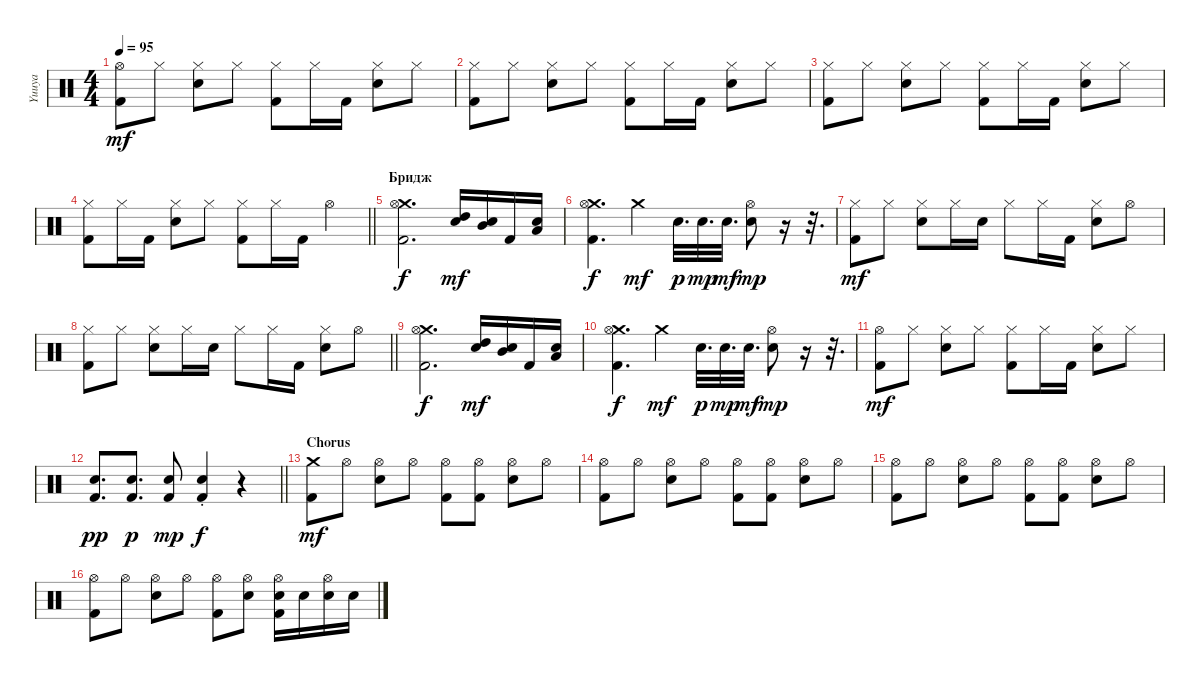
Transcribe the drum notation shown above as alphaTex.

\track ("Yuuya" "Yuuya") {instrument percussion}
\staff {score}
\articulation defaults
\ts (4 4)
\tempo 95
\clef neutral
\ks c
("Hi-Hat (open)" "Kick (hit) 2").8{dy mf} "Hi-Hat (closed)".8 ("Hi-Hat (closed)" "Snare (hit) 2").8 "Hi-Hat (closed)".8 ("Hi-Hat (closed)" "Kick (hit) 2").8 "Hi-Hat (closed)".16 "Kick (hit) 2".16 ("Hi-Hat (closed)" "Snare (hit) 2").8 "Hi-Hat (closed)".8 |
("Hi-Hat (closed)" "Kick (hit) 2").8 "Hi-Hat (closed)".8 ("Hi-Hat (closed)" "Snare (hit) 2").8 "Hi-Hat (closed)".8 ("Hi-Hat (closed)" "Kick (hit) 2").8 "Hi-Hat (closed)".16 "Kick (hit) 2".16 ("Hi-Hat (closed)" "Snare (hit) 2").8 "Hi-Hat (closed)".8 |
("Hi-Hat (closed)" "Kick (hit) 2").8 "Hi-Hat (closed)".8 ("Hi-Hat (closed)" "Snare (hit) 2").8 "Hi-Hat (closed)".8 ("Hi-Hat (closed)" "Kick (hit) 2").8 "Hi-Hat (closed)".16 "Kick (hit) 2".16 ("Hi-Hat (closed)" "Snare (hit) 2").8 "Hi-Hat (closed)".8 |
\barLineRight lightlight
("Hi-Hat (closed)" "Kick (hit) 2").8 "Hi-Hat (closed)".16 "Kick (hit) 2".16 ("Hi-Hat (closed)" "Snare (hit) 2").8 "Hi-Hat (closed)".8 ("Hi-Hat (closed)" "Kick (hit) 2").8 "Hi-Hat (closed)".16 "Kick (hit) 2".16 "Hi-Hat (open)".4 |
\section ("" "Бридж")
("Crash medium (hit)" "Hi-Hat (open)" "Kick (hit) 2").2{d dy f} ("Snare (hit) 2" "High Tom (hit)").16{bd 480 dy mf} ("Snare (hit) 2" "Mid Tom (hit)").16{bd 480} "Kick (hit) 2".16 ("Snare (hit) 2" "Low Tom (hit)").16 |
("Crash medium (hit)" "Hi-Hat (open)" "Kick (hit) 2").4{d dy f} "Crash medium (hit)".4{dy mf} "Snare (hit) 2".32{d dy p} "Snare (hit) 2".32{d dy mp} "Snare (hit) 2".32{d dy mf} ("Hi-Hat (open)" "Snare (hit) 2").8{dy mp} r.16 r.32{d} |
("Hi-Hat (closed)" "Kick (hit) 2").8{dy mf} "Hi-Hat (closed)".8 ("Hi-Hat (closed)" "Snare (hit) 2").8 "Hi-Hat (closed)".16 "Snare (hit) 2".16 "Hi-Hat (closed)".8 "Hi-Hat (closed)".16 "Kick (hit) 2".16 ("Hi-Hat (closed)" "Snare (hit) 2").8 "Hi-Hat (open)".8 |
\barLineRight lightlight
("Hi-Hat (closed)" "Kick (hit) 2").8 "Hi-Hat (closed)".8 ("Hi-Hat (closed)" "Snare (hit) 2").8 "Hi-Hat (closed)".16 "Snare (hit) 2".16 "Hi-Hat (closed)".8 "Hi-Hat (closed)".16 "Kick (hit) 2".16 ("Hi-Hat (closed)" "Snare (hit) 2").8 "Hi-Hat (open)".8 |
\section ("" "")
("Crash medium (hit)" "Hi-Hat (open)" "Kick (hit) 2").2{d dy f} ("Snare (hit) 2" "High Tom (hit)").16{bd 480 dy mf} ("Snare (hit) 2" "Mid Tom (hit)").16{bd 480} "Kick (hit) 2".16 ("Snare (hit) 2" "Low Tom (hit)").16 |
("Crash medium (hit)" "Hi-Hat (open)" "Kick (hit) 2").4{d dy f} "Crash medium (hit)".4{dy mf} "Snare (hit) 2".32{d dy p} "Snare (hit) 2".32{d dy mp} "Snare (hit) 2".32{d dy mf} ("Hi-Hat (open)" "Snare (hit) 2").8{dy mp} r.16 r.32{d} |
("Hi-Hat (open)" "Kick (hit) 2").8{dy mf} "Hi-Hat (closed)".8 ("Hi-Hat (closed)" "Snare (hit) 2").8 "Hi-Hat (closed)".8 ("Hi-Hat (closed)" "Kick (hit) 2").8 "Hi-Hat (closed)".16 "Kick (hit) 2".16 ("Hi-Hat (closed)" "Snare (hit) 2").8 "Hi-Hat (closed)".8 |
\barLineRight lightlight
("Kick (hit) 2" "Snare (hit) 2").8{d dy pp} ("Kick (hit) 2" "Snare (hit) 2").8{d dy p} ("Kick (hit) 2" "Snare (hit) 2").8{dy mp} ("Kick (hit) 2"{st} "Snare (hit) 2"{st}).4{dy f} r.4 |
\section ("" "Chorus")
("Crash medium (hit)" "Kick (hit) 2").8{dy mf} "Hi-Hat (open)".8 ("Hi-Hat (open)" "Snare (hit) 2").8 "Hi-Hat (open)".8 ("Hi-Hat (open)" "Kick (hit) 2").8 ("Hi-Hat (open)" "Kick (hit) 2").8 ("Hi-Hat (open)" "Snare (hit) 2").8 "Hi-Hat (open)".8 |
("Hi-Hat (open)" "Kick (hit) 2").8 "Hi-Hat (open)".8 ("Hi-Hat (open)" "Snare (hit) 2").8 "Hi-Hat (open)".8 ("Hi-Hat (open)" "Kick (hit) 2").8 ("Hi-Hat (open)" "Kick (hit) 2").8 ("Hi-Hat (open)" "Snare (hit) 2").8 "Hi-Hat (open)".8 |
("Hi-Hat (open)" "Kick (hit) 2").8 "Hi-Hat (open)".8 ("Hi-Hat (open)" "Snare (hit) 2").8 "Hi-Hat (open)".8 ("Hi-Hat (open)" "Kick (hit) 2").8 ("Hi-Hat (open)" "Kick (hit) 2").8 ("Hi-Hat (open)" "Snare (hit) 2").8 "Hi-Hat (open)".8 |
("Hi-Hat (open)" "Kick (hit) 2").8 "Hi-Hat (open)".8 ("Hi-Hat (open)" "Snare (hit) 2").8 "Hi-Hat (open)".8 ("Hi-Hat (open)" "Kick (hit) 2").8 ("Hi-Hat (open)" "Snare (hit) 2").8 ("Hi-Hat (open)" "Snare (hit) 2" "Kick (hit) 2").16 "Snare (hit) 2".16 ("Hi-Hat (open)" "Snare (hit) 2").16 "Snare (hit) 2".16
